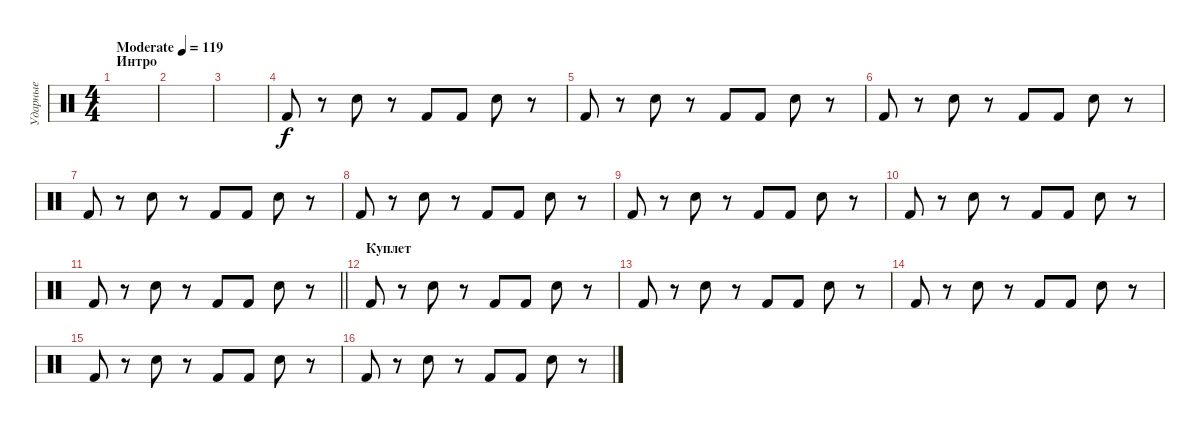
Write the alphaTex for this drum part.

\track ("Ударные" "Ударные") {instrument percussion}
\staff {score}
\articulation defaults
\ts (4 4)
\section ("" "Интро")
\tempo (119 "Moderate")
\clef neutral
\ks c
|
|
|
"Kick (hit) 2".8 r.8 "Snare (hit) 2".8 r.8 "Kick (hit) 2".8 "Kick (hit) 2".8 "Snare (hit) 2".8 r.8 |
"Kick (hit) 2".8 r.8 "Snare (hit) 2".8 r.8 "Kick (hit) 2".8 "Kick (hit) 2".8 "Snare (hit) 2".8 r.8 |
"Kick (hit) 2".8 r.8 "Snare (hit) 2".8 r.8 "Kick (hit) 2".8 "Kick (hit) 2".8 "Snare (hit) 2".8 r.8 |
"Kick (hit) 2".8 r.8 "Snare (hit) 2".8 r.8 "Kick (hit) 2".8 "Kick (hit) 2".8 "Snare (hit) 2".8 r.8 |
"Kick (hit) 2".8 r.8 "Snare (hit) 2".8 r.8 "Kick (hit) 2".8 "Kick (hit) 2".8 "Snare (hit) 2".8 r.8 |
"Kick (hit) 2".8 r.8 "Snare (hit) 2".8 r.8 "Kick (hit) 2".8 "Kick (hit) 2".8 "Snare (hit) 2".8 r.8 |
"Kick (hit) 2".8 r.8 "Snare (hit) 2".8 r.8 "Kick (hit) 2".8 "Kick (hit) 2".8 "Snare (hit) 2".8 r.8 |
\barLineRight lightlight "Kick (hit) 2".8
r.8 "Snare (hit) 2".8 r.8 "Kick (hit) 2".8 "Kick (hit) 2".8 "Snare (hit) 2".8 r.8 |
\section ("" "Куплет")
"Kick (hit) 2".8 r.8 "Snare (hit) 2".8 r.8 "Kick (hit) 2".8 "Kick (hit) 2".8 "Snare (hit) 2".8 r.8 |
"Kick (hit) 2".8 r.8 "Snare (hit) 2".8 r.8 "Kick (hit) 2".8 "Kick (hit) 2".8 "Snare (hit) 2".8 r.8 |
"Kick (hit) 2".8 r.8 "Snare (hit) 2".8 r.8 "Kick (hit) 2".8 "Kick (hit) 2".8 "Snare (hit) 2".8 r.8 |
"Kick (hit) 2".8 r.8 "Snare (hit) 2".8 r.8 "Kick (hit) 2".8 "Kick (hit) 2".8 "Snare (hit) 2".8 r.8 |
"Kick (hit) 2".8 r.8 "Snare (hit) 2".8 r.8 "Kick (hit) 2".8 "Kick (hit) 2".8 "Snare (hit) 2".8 r.8
